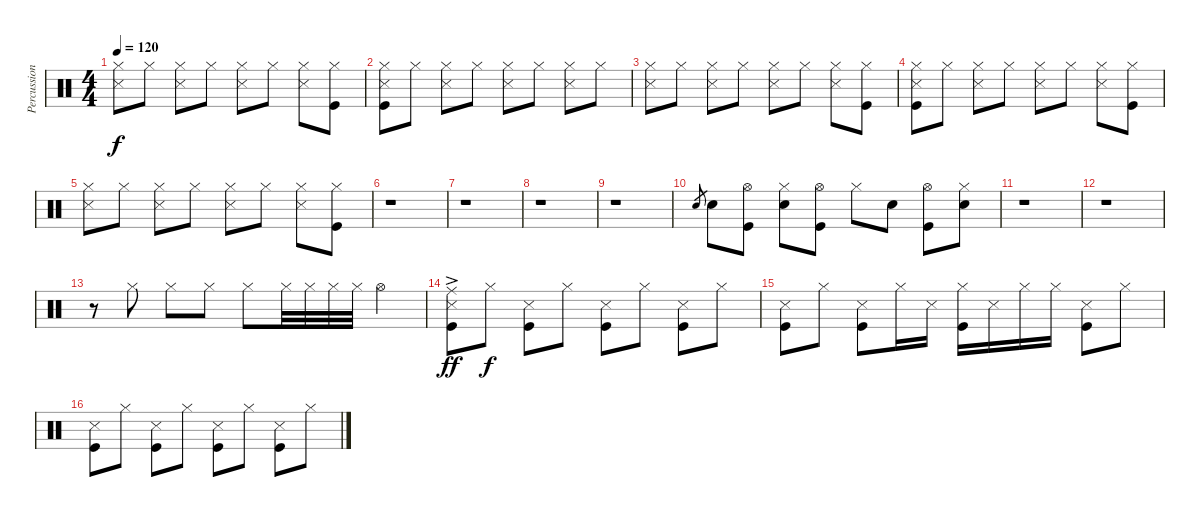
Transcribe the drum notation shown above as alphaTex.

\track ("Percussion" "Percussion") {instrument percussion}
\staff {score}
\articulation defaults
\ts (4 4)
\tempo 120
\clef neutral
\ks c
("Hi-Hat (closed)" "Snare (side stick) 3").8{dy f} "Hi-Hat (closed)".8 ("Hi-Hat (closed)" "Snare (side stick) 3").8 "Hi-Hat (closed)".8 ("Hi-Hat (closed)" "Snare (side stick) 3").8 "Hi-Hat (closed)".8 ("Hi-Hat (closed)" "Snare (side stick) 3").8 ("Hi-Hat (closed)" "Kick (hit)").8 |
("Hi-Hat (closed)" "Snare (side stick) 3" "Kick (hit)").8 "Hi-Hat (closed)".8 ("Hi-Hat (closed)" "Snare (side stick) 3").8 "Hi-Hat (closed)".8 ("Hi-Hat (closed)" "Snare (side stick) 3").8 "Hi-Hat (closed)".8 ("Hi-Hat (closed)" "Snare (side stick) 3").8 "Hi-Hat (closed)".8 |
("Hi-Hat (closed)" "Snare (side stick) 3").8 "Hi-Hat (closed)".8 ("Hi-Hat (closed)" "Snare (side stick) 3").8 "Hi-Hat (closed)".8 ("Hi-Hat (closed)" "Snare (side stick) 3").8 "Hi-Hat (closed)".8 ("Hi-Hat (closed)" "Snare (side stick) 3").8 ("Hi-Hat (closed)" "Kick (hit)").8 |
("Hi-Hat (closed)" "Snare (side stick) 3" "Kick (hit)").8 "Hi-Hat (closed)".8 ("Hi-Hat (closed)" "Snare (side stick) 3").8 "Hi-Hat (closed)".8 ("Hi-Hat (closed)" "Snare (side stick) 3").8 "Hi-Hat (closed)".8 ("Hi-Hat (closed)" "Snare (side stick) 3").8 ("Hi-Hat (closed)" "Kick (hit)").8 |
("Hi-Hat (closed)" "Snare (side stick) 3").8 "Hi-Hat (closed)".8 ("Hi-Hat (closed)" "Snare (side stick) 3").8 "Hi-Hat (closed)".8 ("Hi-Hat (closed)" "Snare (side stick) 3").8 "Hi-Hat (closed)".8 ("Hi-Hat (closed)" "Snare (side stick) 3").8 ("Hi-Hat (closed)" "Kick (hit)").8 |
r.1 |
r.1 |
r.1 |
r.1 |
"Snare (hit) 2".8{gr} "Snare (hit) 2".8 ("Hi-Hat (open)" "Kick (hit)").8 ("Hi-Hat (closed)" "Snare (hit) 2").8 ("Hi-Hat (open)" "Kick (hit)").8 "Hi-Hat (closed)".8 "Snare (hit) 2".8 ("Hi-Hat (open)" "Kick (hit)").8 ("Hi-Hat (closed)" "Snare (hit) 2").8 |
r.1 |
r.1 |
r.8 "Hi-Hat (closed)".8 "Hi-Hat (closed)".8 "Hi-Hat (closed)".8 "Hi-Hat (closed)".8 "Hi-Hat (closed)".32 "Hi-Hat (closed)".32 "Hi-Hat (closed)".32 "Hi-Hat (closed)".32 "Hi-Hat (open)".4 |
("Ride (middle)"{ac} "Snare (side stick) 3" "Kick (hit)").8{dy ff} "Hi-Hat (closed)".8{dy f} ("Snare (side stick) 3" "Kick (hit)").8 "Hi-Hat (closed)".8 ("Snare (side stick) 3" "Kick (hit)").8 "Hi-Hat (closed)".8 ("Snare (side stick) 3" "Kick (hit)").8 "Hi-Hat (closed)".8 |
("Snare (side stick) 3" "Kick (hit)").8 "Hi-Hat (closed)".8 ("Snare (side stick) 3" "Kick (hit)").8 "Hi-Hat (closed)".16 "Snare (side stick) 3".16 ("Hi-Hat (closed)" "Kick (hit)").16 "Snare (side stick) 3".16 "Hi-Hat (closed)".16 "Hi-Hat (closed)".16 ("Snare (side stick) 3" "Kick (hit)").8 "Hi-Hat (closed)".8 |
("Snare (side stick) 3" "Kick (hit)").8 "Hi-Hat (closed)".8 ("Snare (side stick) 3" "Kick (hit)").8 "Hi-Hat (closed)".8 ("Snare (side stick) 3" "Kick (hit)").8 "Hi-Hat (closed)".8 ("Snare (side stick) 3" "Kick (hit)").8 "Hi-Hat (closed)".8
